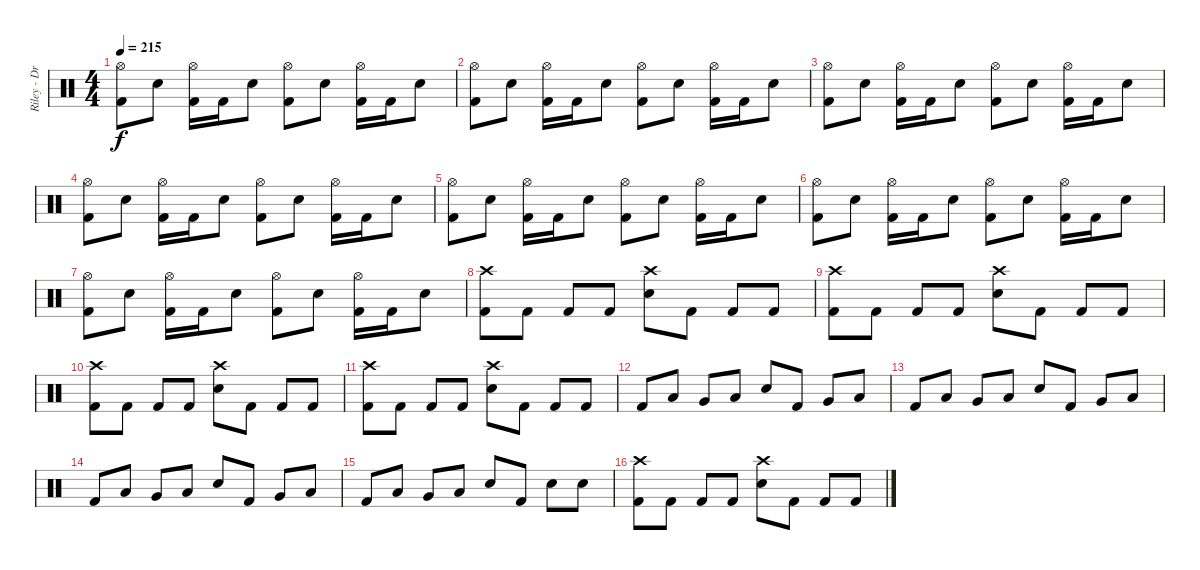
\track ("Riley - Drums" "Riley - Dr") {instrument percussion}
\staff {score}
\articulation defaults
\ts (4 4)
\tempo 215
\clef neutral
\ks c
("Hi-Hat (open)" "Kick (hit) 2").8{dy f} "Electric Snare (hit)".8 ("Hi-Hat (open)" "Kick (hit) 2").16 "Kick (hit) 2".16 "Electric Snare (hit)".8 ("Hi-Hat (open)" "Kick (hit) 2").8 "Electric Snare (hit)".8 ("Hi-Hat (open)" "Kick (hit) 2").16 "Kick (hit) 2".16 "Electric Snare (hit)".8 |
("Hi-Hat (open)" "Kick (hit) 2").8 "Electric Snare (hit)".8 ("Hi-Hat (open)" "Kick (hit) 2").16 "Kick (hit) 2".16 "Electric Snare (hit)".8 ("Hi-Hat (open)" "Kick (hit) 2").8 "Electric Snare (hit)".8 ("Hi-Hat (open)" "Kick (hit) 2").16 "Kick (hit) 2".16 "Electric Snare (hit)".8 |
("Hi-Hat (open)" "Kick (hit) 2").8 "Electric Snare (hit)".8 ("Hi-Hat (open)" "Kick (hit) 2").16 "Kick (hit) 2".16 "Electric Snare (hit)".8 ("Hi-Hat (open)" "Kick (hit) 2").8 "Electric Snare (hit)".8 ("Hi-Hat (open)" "Kick (hit) 2").16 "Kick (hit) 2".16 "Electric Snare (hit)".8 |
("Hi-Hat (open)" "Kick (hit) 2").8 "Electric Snare (hit)".8 ("Hi-Hat (open)" "Kick (hit) 2").16 "Kick (hit) 2".16 "Electric Snare (hit)".8 ("Hi-Hat (open)" "Kick (hit) 2").8 "Electric Snare (hit)".8 ("Hi-Hat (open)" "Kick (hit) 2").16 "Kick (hit) 2".16 "Electric Snare (hit)".8 |
("Hi-Hat (open)" "Kick (hit) 2").8 "Electric Snare (hit)".8 ("Hi-Hat (open)" "Kick (hit) 2").16 "Kick (hit) 2".16 "Electric Snare (hit)".8 ("Hi-Hat (open)" "Kick (hit) 2").8 "Electric Snare (hit)".8 ("Hi-Hat (open)" "Kick (hit) 2").16 "Kick (hit) 2".16 "Electric Snare (hit)".8 |
("Hi-Hat (open)" "Kick (hit) 2").8 "Electric Snare (hit)".8 ("Hi-Hat (open)" "Kick (hit) 2").16 "Kick (hit) 2".16 "Electric Snare (hit)".8 ("Hi-Hat (open)" "Kick (hit) 2").8 "Electric Snare (hit)".8 ("Hi-Hat (open)" "Kick (hit) 2").16 "Kick (hit) 2".16 "Electric Snare (hit)".8 |
("Hi-Hat (open)" "Kick (hit) 2").8 "Electric Snare (hit)".8 ("Hi-Hat (open)" "Kick (hit) 2").16 "Kick (hit) 2".16 "Electric Snare (hit)".8 ("Hi-Hat (open)" "Kick (hit) 2").8 "Electric Snare (hit)".8 ("Hi-Hat (open)" "Kick (hit) 2").16 "Kick (hit) 2".16 "Electric Snare (hit)".8 |
("Crash high (hit)" "Kick (hit) 2").8 "Kick (hit) 2".8 "Kick (hit) 2".8 "Kick (hit) 2".8 ("Crash high (hit)" "Electric Snare (hit)").8 "Kick (hit) 2".8 "Kick (hit) 2".8 "Kick (hit) 2".8 |
("Crash high (hit)" "Kick (hit) 2").8 "Kick (hit) 2".8 "Kick (hit) 2".8 "Kick (hit) 2".8 ("Crash high (hit)" "Electric Snare (hit)").8 "Kick (hit) 2".8 "Kick (hit) 2".8 "Kick (hit) 2".8 |
("Crash high (hit)" "Kick (hit) 2").8 "Kick (hit) 2".8 "Kick (hit) 2".8 "Kick (hit) 2".8 ("Crash high (hit)" "Electric Snare (hit)").8 "Kick (hit) 2".8 "Kick (hit) 2".8 "Kick (hit) 2".8 |
("Crash high (hit)" "Kick (hit) 2").8 "Kick (hit) 2".8 "Kick (hit) 2".8 "Kick (hit) 2".8 ("Crash high (hit)" "Electric Snare (hit)").8 "Kick (hit) 2".8 "Kick (hit) 2".8 "Kick (hit) 2".8 |
"Kick (hit) 2".8 "Low Tom (hit)".8 "Very Low Tom (hit)".8 "Low Floor Tom (hit)".8 "Electric Snare (hit)".8 "Kick (hit) 2".8 "Very Low Tom (hit)".8 "Low Floor Tom (hit)".8 |
"Kick (hit) 2".8 "Low Tom (hit)".8 "Very Low Tom (hit)".8 "Low Floor Tom (hit)".8 "Electric Snare (hit)".8 "Kick (hit) 2".8 "Very Low Tom (hit)".8 "Low Floor Tom (hit)".8 |
"Kick (hit) 2".8 "Low Tom (hit)".8 "Very Low Tom (hit)".8 "Low Floor Tom (hit)".8 "Electric Snare (hit)".8 "Kick (hit) 2".8 "Very Low Tom (hit)".8 "Low Floor Tom (hit)".8 |
"Kick (hit) 2".8 "Low Tom (hit)".8 "Very Low Tom (hit)".8 "Low Floor Tom (hit)".8 "Electric Snare (hit)".8 "Kick (hit) 2".8 "Electric Snare (hit)".8 "Electric Snare (hit)".8 |
("Crash high (hit)" "Kick (hit) 2").8 "Kick (hit) 2".8 "Kick (hit) 2".8 "Kick (hit) 2".8 ("Crash high (hit)" "Electric Snare (hit)").8 "Kick (hit) 2".8 "Kick (hit) 2".8 "Kick (hit) 2".8
